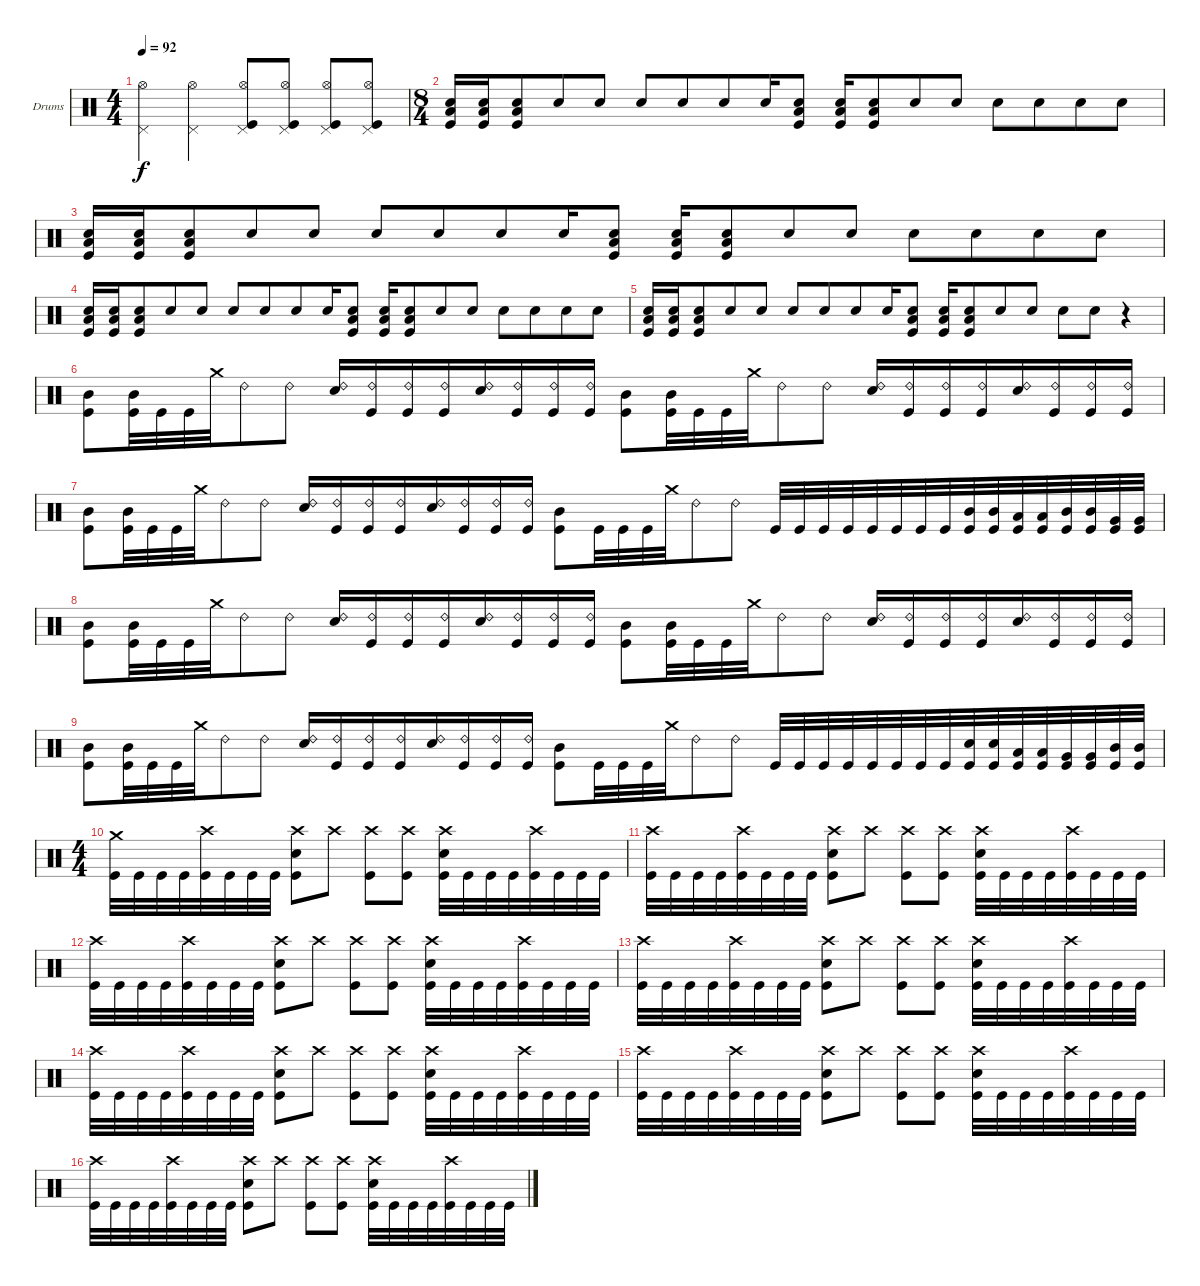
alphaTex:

\bracketExtendMode groupsimilarinstruments
\firstSystemTrackNameOrientation horizontal
\otherSystemsTrackNameOrientation horizontal
\track ("Drumkit" "Drums") {instrument percussion}
\staff {score}
\articulation defaults
\ts (4 4)
\beaming (8 2 2 2 2)
\tempo 92
\clef neutral
\ks c
("Pedal Hi-Hat (hit)" "Hi-Hat (open)").4{dy f} ("Pedal Hi-Hat (hit)" "Hi-Hat (open)").4 ("Pedal Hi-Hat (hit)" "Hi-Hat (open)" "Kick (hit)").8 ("Pedal Hi-Hat (hit)" "Hi-Hat (open)" "Kick (hit)").8 ("Pedal Hi-Hat (hit)" "Hi-Hat (open)" "Kick (hit)").8 ("Pedal Hi-Hat (hit)" "Hi-Hat (open)" "Kick (hit)").8 |
\ts (8 4)
\beaming (8 4 4 4 4)
("Low Tom (hit)" "Snare (hit) 2" "Kick (hit)").16 ("Low Tom (hit)" "Snare (hit) 2" "Kick (hit)").16 ("Low Tom (hit)" "Snare (hit) 2" "Kick (hit)").8 "Snare (hit) 2".8 "Snare (hit) 2".8 "Snare (hit) 2".8 "Snare (hit) 2".8 "Snare (hit) 2".8 "Snare (hit) 2".16 ("Low Tom (hit)" "Snare (hit) 2" "Kick (hit)").8 ("Low Tom (hit)" "Snare (hit) 2" "Kick (hit)").16 ("Low Tom (hit)" "Snare (hit) 2" "Kick (hit)").8 "Snare (hit) 2".8 "Snare (hit) 2".8 "Snare (hit) 2".8 "Snare (hit) 2".8 "Snare (hit) 2".8 "Snare (hit) 2".8 |
("Low Tom (hit)" "Snare (hit) 2" "Kick (hit)").16 ("Low Tom (hit)" "Snare (hit) 2" "Kick (hit)").16 ("Low Tom (hit)" "Snare (hit) 2" "Kick (hit)").8 "Snare (hit) 2".8 "Snare (hit) 2".8 "Snare (hit) 2".8 "Snare (hit) 2".8 "Snare (hit) 2".8 "Snare (hit) 2".16 ("Low Tom (hit)" "Snare (hit) 2" "Kick (hit)").8 ("Low Tom (hit)" "Snare (hit) 2" "Kick (hit)").16 ("Low Tom (hit)" "Snare (hit) 2" "Kick (hit)").8 "Snare (hit) 2".8 "Snare (hit) 2".8 "Snare (hit) 2".8 "Snare (hit) 2".8 "Snare (hit) 2".8 "Snare (hit) 2".8 |
("Low Tom (hit)" "Snare (hit) 2" "Kick (hit)").16 ("Low Tom (hit)" "Snare (hit) 2" "Kick (hit)").16 ("Low Tom (hit)" "Snare (hit) 2" "Kick (hit)").8 "Snare (hit) 2".8 "Snare (hit) 2".8 "Snare (hit) 2".8 "Snare (hit) 2".8 "Snare (hit) 2".8 "Snare (hit) 2".16 ("Low Tom (hit)" "Snare (hit) 2" "Kick (hit)").8 ("Low Tom (hit)" "Snare (hit) 2" "Kick (hit)").16 ("Low Tom (hit)" "Snare (hit) 2" "Kick (hit)").8 "Snare (hit) 2".8 "Snare (hit) 2".8 "Snare (hit) 2".8 "Snare (hit) 2".8 "Snare (hit) 2".8 "Snare (hit) 2".8 |
("Low Tom (hit)" "Snare (hit) 2" "Kick (hit)").16 ("Low Tom (hit)" "Snare (hit) 2" "Kick (hit)").16 ("Low Tom (hit)" "Snare (hit) 2" "Kick (hit)").8 "Snare (hit) 2".8 "Snare (hit) 2".8 "Snare (hit) 2".8 "Snare (hit) 2".8 "Snare (hit) 2".8 "Snare (hit) 2".16 ("Low Tom (hit)" "Snare (hit) 2" "Kick (hit)").8 ("Low Tom (hit)" "Snare (hit) 2" "Kick (hit)").16 ("Low Tom (hit)" "Snare (hit) 2" "Kick (hit)").8 "Snare (hit) 2".8 "Snare (hit) 2".8 "Snare (hit) 2".8 "Snare (hit) 2".8 r.4 |
("Mid Tom (hit)" "Kick (hit)").8 ("Mid Tom (hit)" "Kick (hit)").32 "Kick (hit)".32 "Kick (hit)".32 "Crash medium (hit)".32 "Ride (bell) 2".8 "Ride (bell) 2".8 ("Ride (bell) 2" "Snare (hit) 2").16 ("Ride (bell) 2" "Kick (hit)").16 ("Ride (bell) 2" "Kick (hit)").16 ("Ride (bell) 2" "Kick (hit)").16 ("Ride (bell) 2" "Snare (hit) 2").16 ("Ride (bell) 2" "Kick (hit)").16 ("Ride (bell) 2" "Kick (hit)").16 ("Ride (bell) 2" "Kick (hit)").16 ("Mid Tom (hit)" "Kick (hit)").8 ("Mid Tom (hit)" "Kick (hit)").32 "Kick (hit)".32 "Kick (hit)".32 "Crash medium (hit)".32 "Ride (bell) 2".8 "Ride (bell) 2".8 ("Ride (bell) 2" "Snare (hit) 2").16 ("Ride (bell) 2" "Kick (hit)").16 ("Ride (bell) 2" "Kick (hit)").16 ("Ride (bell) 2" "Kick (hit)").16 ("Ride (bell) 2" "Snare (hit) 2").16 ("Ride (bell) 2" "Kick (hit)").16 ("Ride (bell) 2" "Kick (hit)").16 ("Ride (bell) 2" "Kick (hit)").16 |
("Mid Tom (hit)" "Kick (hit)").8 ("Mid Tom (hit)" "Kick (hit)").32 "Kick (hit)".32 "Kick (hit)".32 "Crash medium (hit)".32 "Ride (bell) 2".8 "Ride (bell) 2".8 ("Ride (bell) 2" "Snare (hit) 2").16 ("Ride (bell) 2" "Kick (hit)").16 ("Ride (bell) 2" "Kick (hit)").16 ("Ride (bell) 2" "Kick (hit)").16 ("Ride (bell) 2" "Snare (hit) 2").16 ("Ride (bell) 2" "Kick (hit)").16 ("Ride (bell) 2" "Kick (hit)").16 ("Ride (bell) 2" "Kick (hit)").16 ("Mid Tom (hit)" "Kick (hit)").8 "Kick (hit)".32 "Kick (hit)".32 "Kick (hit)".32 "Crash medium (hit)".32 "Ride (bell) 2".8 "Ride (bell) 2".8 "Kick (hit)".32 "Kick (hit)".32 "Kick (hit)".32 "Kick (hit)".32 "Kick (hit)".32 "Kick (hit)".32 "Kick (hit)".32 "Kick (hit)".32 ("Mid Tom (hit)" "Kick (hit)").32 ("Mid Tom (hit)" "Kick (hit)").32 ("Low Tom (hit)" "Kick (hit)").32 ("Low Tom (hit)" "Kick (hit)").32 ("Mid Tom (hit)" "Kick (hit)").32 ("Mid Tom (hit)" "Kick (hit)").32 ("Very Low Tom (hit)" "Kick (hit)").32 ("Very Low Tom (hit)" "Kick (hit)").32 |
("Mid Tom (hit)" "Kick (hit)").8 ("Mid Tom (hit)" "Kick (hit)").32 "Kick (hit)".32 "Kick (hit)".32 "Crash medium (hit)".32 "Ride (bell) 2".8 "Ride (bell) 2".8 ("Ride (bell) 2" "Snare (hit) 2").16 ("Ride (bell) 2" "Kick (hit)").16 ("Ride (bell) 2" "Kick (hit)").16 ("Ride (bell) 2" "Kick (hit)").16 ("Ride (bell) 2" "Snare (hit) 2").16 ("Ride (bell) 2" "Kick (hit)").16 ("Ride (bell) 2" "Kick (hit)").16 ("Ride (bell) 2" "Kick (hit)").16 ("Mid Tom (hit)" "Kick (hit)").8 ("Mid Tom (hit)" "Kick (hit)").32 "Kick (hit)".32 "Kick (hit)".32 "Crash medium (hit)".32 "Ride (bell) 2".8 "Ride (bell) 2".8 ("Ride (bell) 2" "Snare (hit) 2").16 ("Ride (bell) 2" "Kick (hit)").16 ("Ride (bell) 2" "Kick (hit)").16 ("Ride (bell) 2" "Kick (hit)").16 ("Ride (bell) 2" "Snare (hit) 2").16 ("Ride (bell) 2" "Kick (hit)").16 ("Ride (bell) 2" "Kick (hit)").16 ("Ride (bell) 2" "Kick (hit)").16 |
("Mid Tom (hit)" "Kick (hit)").8 ("Mid Tom (hit)" "Kick (hit)").32 "Kick (hit)".32 "Kick (hit)".32 "Crash medium (hit)".32 "Ride (bell) 2".8 "Ride (bell) 2".8 ("Ride (bell) 2" "Snare (hit) 2").16 ("Ride (bell) 2" "Kick (hit)").16 ("Ride (bell) 2" "Kick (hit)").16 ("Ride (bell) 2" "Kick (hit)").16 ("Ride (bell) 2" "Snare (hit) 2").16 ("Ride (bell) 2" "Kick (hit)").16 ("Ride (bell) 2" "Kick (hit)").16 ("Ride (bell) 2" "Kick (hit)").16 ("Mid Tom (hit)" "Kick (hit)").8 "Kick (hit)".32 "Kick (hit)".32 "Kick (hit)".32 "Crash medium (hit)".32 "Ride (bell) 2".8 "Ride (bell) 2".8 "Kick (hit)".32 "Kick (hit)".32 "Kick (hit)".32 "Kick (hit)".32 "Kick (hit)".32 "Kick (hit)".32 "Kick (hit)".32 "Kick (hit)".32 ("Snare (hit) 2" "Kick (hit)").32 ("Snare (hit) 2" "Kick (hit)").32 ("Low Tom (hit)" "Kick (hit)").32 ("Low Tom (hit)" "Kick (hit)").32 ("Very Low Tom (hit)" "Kick (hit)").32 ("Very Low Tom (hit)" "Kick (hit)").32 ("Mid Tom (hit)" "Kick (hit)").32 ("Mid Tom (hit)" "Kick (hit)").32 |
\ts (4 4)
\beaming (8 2 2 2 2)
("Crash medium (hit)" "Kick (hit)").32 "Kick (hit)".32 "Kick (hit)".32 "Kick (hit)".32 ("Crash high (hit)" "Kick (hit)").32 "Kick (hit)".32 "Kick (hit)".32 "Kick (hit)".32 ("Crash high (hit)" "Snare (hit) 2" "Kick (hit)").8 "Crash high (hit)".8 ("Crash high (hit)" "Kick (hit)").8 ("Crash high (hit)" "Kick (hit)").8 ("Crash high (hit)" "Snare (hit) 2" "Kick (hit)").32 "Kick (hit)".32 "Kick (hit)".32 "Kick (hit)".32 ("Crash high (hit)" "Kick (hit)").32 "Kick (hit)".32 "Kick (hit)".32 "Kick (hit)".32 |
("Crash high (hit)" "Kick (hit)").32 "Kick (hit)".32 "Kick (hit)".32 "Kick (hit)".32 ("Crash high (hit)" "Kick (hit)").32 "Kick (hit)".32 "Kick (hit)".32 "Kick (hit)".32 ("Crash high (hit)" "Snare (hit) 2" "Kick (hit)").8 "Crash high (hit)".8 ("Crash high (hit)" "Kick (hit)").8 ("Crash high (hit)" "Kick (hit)").8 ("Crash high (hit)" "Snare (hit) 2" "Kick (hit)").32 "Kick (hit)".32 "Kick (hit)".32 "Kick (hit)".32 ("Crash high (hit)" "Kick (hit)").32 "Kick (hit)".32 "Kick (hit)".32 "Kick (hit)".32 |
("Crash high (hit)" "Kick (hit)").32 "Kick (hit)".32 "Kick (hit)".32 "Kick (hit)".32 ("Crash high (hit)" "Kick (hit)").32 "Kick (hit)".32 "Kick (hit)".32 "Kick (hit)".32 ("Crash high (hit)" "Snare (hit) 2" "Kick (hit)").8 "Crash high (hit)".8 ("Crash high (hit)" "Kick (hit)").8 ("Crash high (hit)" "Kick (hit)").8 ("Crash high (hit)" "Snare (hit) 2" "Kick (hit)").32 "Kick (hit)".32 "Kick (hit)".32 "Kick (hit)".32 ("Crash high (hit)" "Kick (hit)").32 "Kick (hit)".32 "Kick (hit)".32 "Kick (hit)".32 |
("Crash high (hit)" "Kick (hit)").32 "Kick (hit)".32 "Kick (hit)".32 "Kick (hit)".32 ("Crash high (hit)" "Kick (hit)").32 "Kick (hit)".32 "Kick (hit)".32 "Kick (hit)".32 ("Crash high (hit)" "Snare (hit) 2" "Kick (hit)").8 "Crash high (hit)".8 ("Crash high (hit)" "Kick (hit)").8 ("Crash high (hit)" "Kick (hit)").8 ("Crash high (hit)" "Snare (hit) 2" "Kick (hit)").32 "Kick (hit)".32 "Kick (hit)".32 "Kick (hit)".32 ("Crash high (hit)" "Kick (hit)").32 "Kick (hit)".32 "Kick (hit)".32 "Kick (hit)".32 |
("Crash high (hit)" "Kick (hit)").32 "Kick (hit)".32 "Kick (hit)".32 "Kick (hit)".32 ("Crash high (hit)" "Kick (hit)").32 "Kick (hit)".32 "Kick (hit)".32 "Kick (hit)".32 ("Crash high (hit)" "Snare (hit) 2" "Kick (hit)").8 "Crash high (hit)".8 ("Crash high (hit)" "Kick (hit)").8 ("Crash high (hit)" "Kick (hit)").8 ("Crash high (hit)" "Snare (hit) 2" "Kick (hit)").32 "Kick (hit)".32 "Kick (hit)".32 "Kick (hit)".32 ("Crash high (hit)" "Kick (hit)").32 "Kick (hit)".32 "Kick (hit)".32 "Kick (hit)".32 |
("Crash high (hit)" "Kick (hit)").32 "Kick (hit)".32 "Kick (hit)".32 "Kick (hit)".32 ("Crash high (hit)" "Kick (hit)").32 "Kick (hit)".32 "Kick (hit)".32 "Kick (hit)".32 ("Crash high (hit)" "Snare (hit) 2" "Kick (hit)").8 "Crash high (hit)".8 ("Crash high (hit)" "Kick (hit)").8 ("Crash high (hit)" "Kick (hit)").8 ("Crash high (hit)" "Snare (hit) 2" "Kick (hit)").32 "Kick (hit)".32 "Kick (hit)".32 "Kick (hit)".32 ("Crash high (hit)" "Kick (hit)").32 "Kick (hit)".32 "Kick (hit)".32 "Kick (hit)".32 |
("Crash high (hit)" "Kick (hit)").32 "Kick (hit)".32 "Kick (hit)".32 "Kick (hit)".32 ("Crash high (hit)" "Kick (hit)").32 "Kick (hit)".32 "Kick (hit)".32 "Kick (hit)".32 ("Crash high (hit)" "Snare (hit) 2" "Kick (hit)").8 "Crash high (hit)".8 ("Crash high (hit)" "Kick (hit)").8 ("Crash high (hit)" "Kick (hit)").8 ("Crash high (hit)" "Snare (hit) 2" "Kick (hit)").32 "Kick (hit)".32 "Kick (hit)".32 "Kick (hit)".32 ("Crash high (hit)" "Kick (hit)").32 "Kick (hit)".32 "Kick (hit)".32 "Kick (hit)".32
